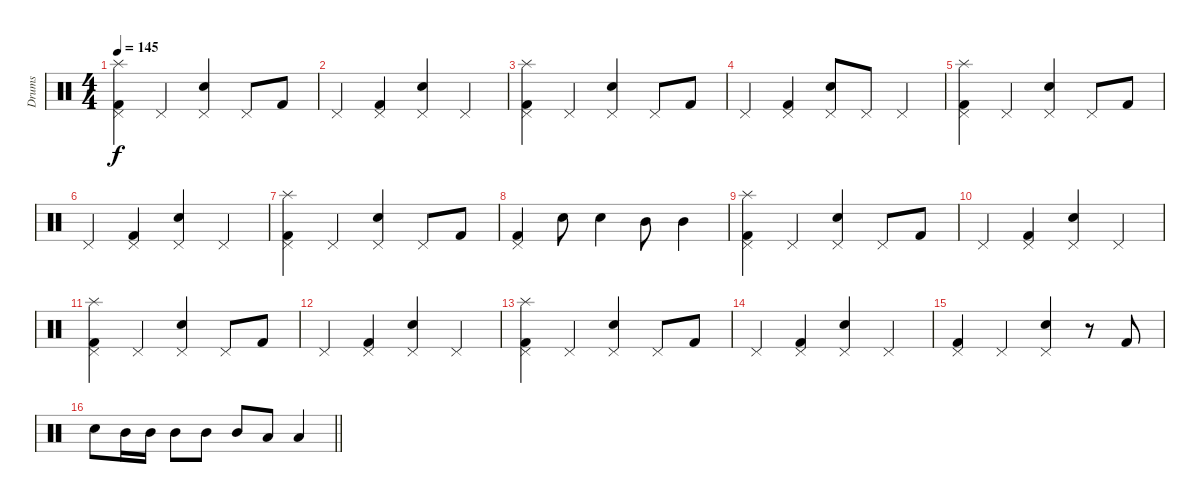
\track ("Drums" "Drums") {instrument percussion}
\staff {score}
\articulation defaults
\ts (4 4)
\tempo 145
\clef neutral
\ks c
("Splash (hit)" "Pedal Hi-Hat (hit)" "Kick (hit) 2").4{dy f} "Pedal Hi-Hat (hit)".4 ("Pedal Hi-Hat (hit)" "Snare (hit) 2").4 "Pedal Hi-Hat (hit)".8 "Kick (hit) 2".8 |
"Pedal Hi-Hat (hit)".4 ("Pedal Hi-Hat (hit)" "Kick (hit) 2").4 ("Pedal Hi-Hat (hit)" "Snare (hit) 2").4 "Pedal Hi-Hat (hit)".4 |
("Splash (hit)" "Pedal Hi-Hat (hit)" "Kick (hit) 2").4 "Pedal Hi-Hat (hit)".4 ("Pedal Hi-Hat (hit)" "Snare (hit) 2").4 "Pedal Hi-Hat (hit)".8 "Kick (hit) 2".8 |
"Pedal Hi-Hat (hit)".4 ("Pedal Hi-Hat (hit)" "Kick (hit) 2").4 ("Pedal Hi-Hat (hit)" "Snare (hit) 2").8 "Pedal Hi-Hat (hit)".8 "Pedal Hi-Hat (hit)".4 |
("Splash (hit)" "Pedal Hi-Hat (hit)" "Kick (hit) 2").4 "Pedal Hi-Hat (hit)".4 ("Pedal Hi-Hat (hit)" "Snare (hit) 2").4 "Pedal Hi-Hat (hit)".8 "Kick (hit) 2".8 |
"Pedal Hi-Hat (hit)".4 ("Pedal Hi-Hat (hit)" "Kick (hit) 2").4 ("Pedal Hi-Hat (hit)" "Snare (hit) 2").4 "Pedal Hi-Hat (hit)".4 |
("Splash (hit)" "Pedal Hi-Hat (hit)" "Kick (hit) 2").4 "Pedal Hi-Hat (hit)".4 ("Pedal Hi-Hat (hit)" "Snare (hit) 2").4 "Pedal Hi-Hat (hit)".8 "Kick (hit) 2".8 |
("Pedal Hi-Hat (hit)" "Kick (hit) 2").4 "Snare (hit) 2".8 "Snare (hit) 2".4 "Mid Tom (hit)".8 "Mid Tom (hit)".4 |
("Splash (hit)" "Pedal Hi-Hat (hit)" "Kick (hit) 2").4 "Pedal Hi-Hat (hit)".4 ("Pedal Hi-Hat (hit)" "Snare (hit) 2").4 "Pedal Hi-Hat (hit)".8 "Kick (hit) 2".8 |
"Pedal Hi-Hat (hit)".4 ("Pedal Hi-Hat (hit)" "Kick (hit) 2").4 ("Pedal Hi-Hat (hit)" "Snare (hit) 2").4 "Pedal Hi-Hat (hit)".4 |
("Splash (hit)" "Pedal Hi-Hat (hit)" "Kick (hit) 2").4 "Pedal Hi-Hat (hit)".4 ("Pedal Hi-Hat (hit)" "Snare (hit) 2").4 "Pedal Hi-Hat (hit)".8 "Kick (hit) 2".8 |
"Pedal Hi-Hat (hit)".4 ("Pedal Hi-Hat (hit)" "Kick (hit) 2").4 ("Pedal Hi-Hat (hit)" "Snare (hit) 2").4 "Pedal Hi-Hat (hit)".4 |
("Splash (hit)" "Pedal Hi-Hat (hit)" "Kick (hit) 2").4 "Pedal Hi-Hat (hit)".4 ("Pedal Hi-Hat (hit)" "Snare (hit) 2").4 "Pedal Hi-Hat (hit)".8 "Kick (hit) 2".8 |
"Pedal Hi-Hat (hit)".4 ("Pedal Hi-Hat (hit)" "Kick (hit) 2").4 ("Pedal Hi-Hat (hit)" "Snare (hit) 2").4 "Pedal Hi-Hat (hit)".4 |
("Pedal Hi-Hat (hit)" "Kick (hit) 2").4 "Pedal Hi-Hat (hit)".4 ("Pedal Hi-Hat (hit)" "Snare (hit) 2").4 r.8 "Kick (hit) 2".8 |
\barLineRight lightlight "Snare (hit) 2".8 "Mid Tom (hit)".16 "Mid Tom (hit)".16 "Mid Tom (hit)".8 "Mid Tom (hit)".8 "Mid Tom (hit)".8 "Low Tom (hit)".8 "Low Floor Tom (hit)".4
